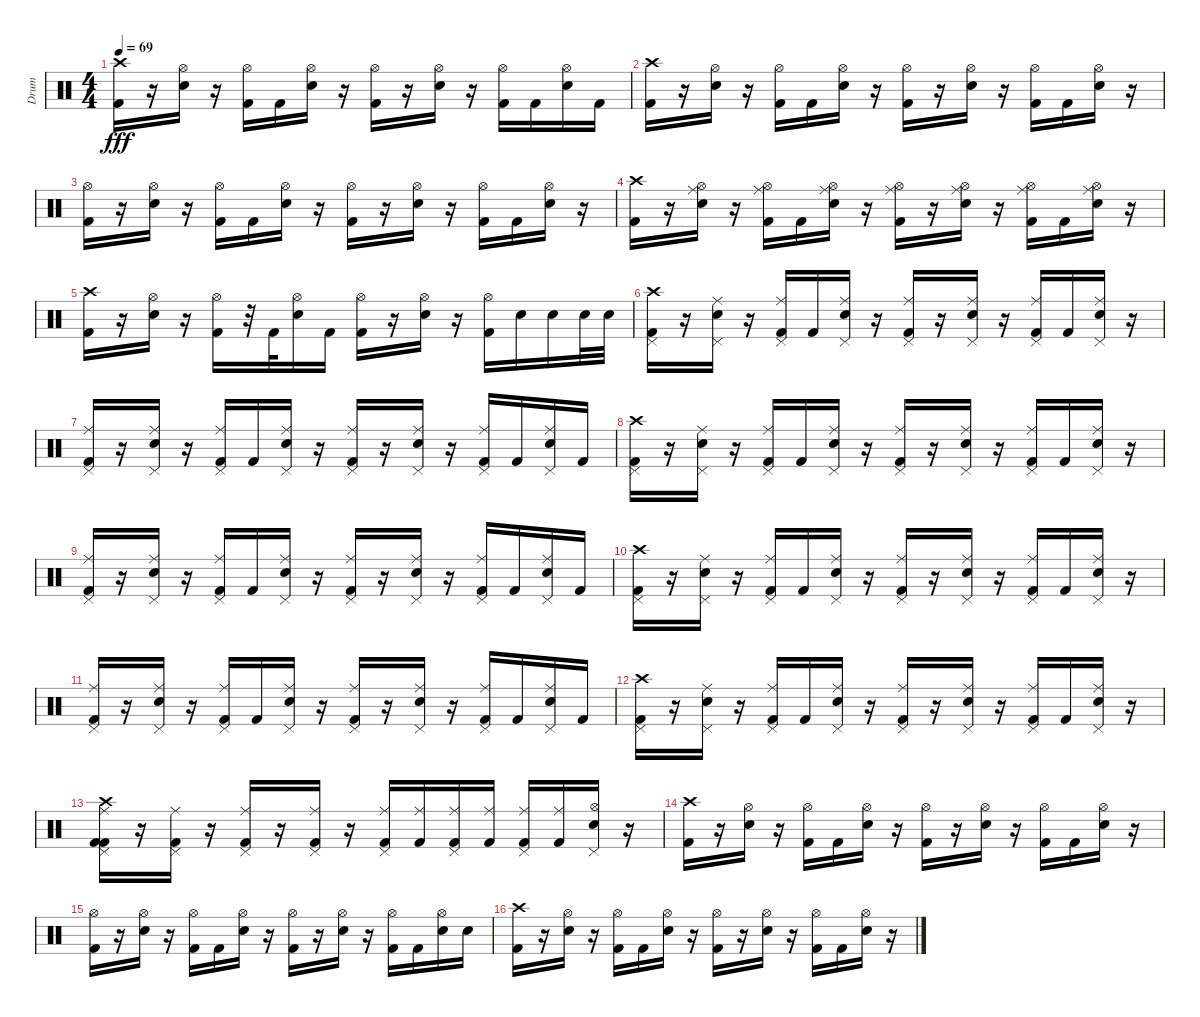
\track ("Drum" "Drum") {instrument percussion}
\staff {score}
\articulation defaults
\ts (4 4)
\tempo 69
\clef neutral
\ks c
("Crash high (hit)" "Kick (hit) 2").16{dy fff} r.16 ("Electric Snare (hit)" "Hi-Hat (open)").16 r.16 ("Kick (hit) 2" "Hi-Hat (open)").16 "Kick (hit) 2".16 ("Electric Snare (hit)" "Hi-Hat (open)").16 r.16 ("Hi-Hat (open)" "Kick (hit) 2").16 r.16 ("Hi-Hat (open)" "Electric Snare (hit)").16 r.16 ("Hi-Hat (open)" "Kick (hit) 2").16 "Kick (hit) 2".16 ("Hi-Hat (open)" "Electric Snare (hit)").16 "Kick (hit) 2".16 |
("Crash high (hit)" "Kick (hit) 2").16 r.16 ("Electric Snare (hit)" "Hi-Hat (open)").16 r.16 ("Kick (hit) 2" "Hi-Hat (open)").16 "Kick (hit) 2".16 ("Electric Snare (hit)" "Hi-Hat (open)").16 r.16 ("Kick (hit) 2" "Hi-Hat (open)").16 r.16 ("Hi-Hat (open)" "Electric Snare (hit)").16 r.16 ("Kick (hit) 2" "Hi-Hat (open)").16 "Kick (hit) 2".16 ("Hi-Hat (open)" "Electric Snare (hit)").16 r.16 |
("Hi-Hat (open)" "Kick (hit) 2").16 r.16 ("Electric Snare (hit)" "Hi-Hat (open)").16 r.16 ("Kick (hit) 2" "Hi-Hat (open)").16 "Kick (hit) 2".16 ("Hi-Hat (open)" "Electric Snare (hit)").16 r.16 ("Hi-Hat (open)" "Kick (hit) 2").16 r.16 ("Electric Snare (hit)" "Hi-Hat (open)").16 r.16 ("Hi-Hat (open)" "Kick (hit) 2").16 "Kick (hit) 2".16 ("Electric Snare (hit)" "Hi-Hat (open)").16 r.16 |
("Crash high (hit)" "Kick (hit) 2").16 r.16 ("Ride (middle)" "Hi-Hat (open)" "Electric Snare (hit)").16 r.16 ("Kick (hit) 2" "Ride (middle)" "Hi-Hat (open)").16 "Kick (hit) 2".16 ("Electric Snare (hit)" "Hi-Hat (open)" "Ride (middle)").16 r.16 ("Kick (hit) 2" "Hi-Hat (open)" "Ride (middle)").16 r.16 ("Electric Snare (hit)" "Ride (middle)" "Hi-Hat (open)").16 r.16 ("Kick (hit) 2" "Ride (middle)" "Hi-Hat (open)").16 "Kick (hit) 2".16 ("Electric Snare (hit)" "Ride (middle)" "Hi-Hat (open)").16 r.16 |
("Crash high (hit)" "Kick (hit) 2").16 r.16 ("Electric Snare (hit)" "Hi-Hat (open)").16 r.16 ("Kick (hit) 2" "Hi-Hat (open)").16 r.32 "Kick (hit) 2".32 ("Hi-Hat (open)" "Electric Snare (hit)").16 "Kick (hit) 2".16 ("Hi-Hat (open)" "Kick (hit) 2").16 r.16 ("Electric Snare (hit)" "Hi-Hat (open)").16 r.16 ("Kick (hit) 2" "Hi-Hat (open)").16 "Electric Snare (hit)".16 "Electric Snare (hit)".16 "Electric Snare (hit)".32 "Electric Snare (hit)".32 |
("Kick (hit) 2" "Crash high (hit)" "Pedal Hi-Hat (hit)").16 r.16 ("Ride (middle)" "Electric Snare (hit)" "Pedal Hi-Hat (hit)").16 r.16 ("Kick (hit) 2" "Ride (middle)" "Pedal Hi-Hat (hit)").16 "Kick (hit) 2".16 ("Electric Snare (hit)" "Ride (middle)" "Pedal Hi-Hat (hit)").16 r.16 ("Kick (hit) 2" "Ride (middle)" "Pedal Hi-Hat (hit)").16 r.16 ("Electric Snare (hit)" "Ride (middle)" "Pedal Hi-Hat (hit)").16 r.16 ("Kick (hit) 2" "Ride (middle)" "Pedal Hi-Hat (hit)").16 "Kick (hit) 2".16 ("Ride (middle)" "Electric Snare (hit)" "Pedal Hi-Hat (hit)").16 r.16 |
("Ride (middle)" "Kick (hit) 2" "Pedal Hi-Hat (hit)").16 r.16 ("Electric Snare (hit)" "Ride (middle)" "Pedal Hi-Hat (hit)").16 r.16 ("Kick (hit) 2" "Ride (middle)" "Pedal Hi-Hat (hit)").16 "Kick (hit) 2".16 ("Electric Snare (hit)" "Ride (middle)" "Pedal Hi-Hat (hit)").16 r.16 ("Kick (hit) 2" "Ride (middle)" "Pedal Hi-Hat (hit)").16 r.16 ("Electric Snare (hit)" "Ride (middle)" "Pedal Hi-Hat (hit)").16 r.16 ("Kick (hit) 2" "Ride (middle)" "Pedal Hi-Hat (hit)").16 "Kick (hit) 2".16 ("Electric Snare (hit)" "Ride (middle)" "Pedal Hi-Hat (hit)").16 "Kick (hit) 2".16 |
("Crash high (hit)" "Kick (hit) 2" "Pedal Hi-Hat (hit)").16 r.16 ("Electric Snare (hit)" "Ride (middle)" "Pedal Hi-Hat (hit)").16 r.16 ("Kick (hit) 2" "Ride (middle)" "Pedal Hi-Hat (hit)").16 "Kick (hit) 2".16 ("Electric Snare (hit)" "Ride (middle)" "Pedal Hi-Hat (hit)").16 r.16 ("Kick (hit) 2" "Ride (middle)" "Pedal Hi-Hat (hit)").16 r.16 ("Electric Snare (hit)" "Ride (middle)" "Pedal Hi-Hat (hit)").16 r.16 ("Kick (hit) 2" "Ride (middle)" "Pedal Hi-Hat (hit)").16 "Kick (hit) 2".16 ("Electric Snare (hit)" "Ride (middle)" "Pedal Hi-Hat (hit)").16 r.16 |
("Kick (hit) 2" "Ride (middle)" "Pedal Hi-Hat (hit)").16 r.16 ("Electric Snare (hit)" "Ride (middle)" "Pedal Hi-Hat (hit)").16 r.16 ("Kick (hit) 2" "Ride (middle)" "Pedal Hi-Hat (hit)").16 "Kick (hit) 2".16 ("Electric Snare (hit)" "Ride (middle)" "Pedal Hi-Hat (hit)").16 r.16 ("Kick (hit) 2" "Ride (middle)" "Pedal Hi-Hat (hit)").16 r.16 ("Electric Snare (hit)" "Ride (middle)" "Pedal Hi-Hat (hit)").16 r.16 ("Kick (hit) 2" "Ride (middle)" "Pedal Hi-Hat (hit)").16 "Kick (hit) 2".16 ("Electric Snare (hit)" "Ride (middle)" "Pedal Hi-Hat (hit)").16 "Kick (hit) 2".16 |
("Crash high (hit)" "Kick (hit) 2" "Pedal Hi-Hat (hit)").16 r.16 ("Electric Snare (hit)" "Ride (middle)" "Pedal Hi-Hat (hit)").16 r.16 ("Kick (hit) 2" "Ride (middle)" "Pedal Hi-Hat (hit)").16 "Kick (hit) 2".16 ("Electric Snare (hit)" "Ride (middle)" "Pedal Hi-Hat (hit)").16 r.16 ("Kick (hit) 2" "Ride (middle)" "Pedal Hi-Hat (hit)").16 r.16 ("Electric Snare (hit)" "Ride (middle)" "Pedal Hi-Hat (hit)").16 r.16 ("Kick (hit) 2" "Ride (middle)" "Pedal Hi-Hat (hit)").16 "Kick (hit) 2".16 ("Electric Snare (hit)" "Ride (middle)" "Pedal Hi-Hat (hit)").16 r.16 |
("Kick (hit) 2" "Ride (middle)" "Pedal Hi-Hat (hit)").16 r.16 ("Electric Snare (hit)" "Ride (middle)" "Pedal Hi-Hat (hit)").16 r.16 ("Kick (hit) 2" "Ride (middle)" "Pedal Hi-Hat (hit)").16 "Kick (hit) 2".16 ("Ride (middle)" "Electric Snare (hit)" "Pedal Hi-Hat (hit)").16 r.16 ("Kick (hit) 2" "Ride (middle)" "Pedal Hi-Hat (hit)").16 r.16 ("Electric Snare (hit)" "Ride (middle)" "Pedal Hi-Hat (hit)").16 r.16 ("Kick (hit) 2" "Ride (middle)" "Pedal Hi-Hat (hit)").16 "Kick (hit) 2".16 ("Ride (middle)" "Electric Snare (hit)" "Pedal Hi-Hat (hit)").16 "Kick (hit) 2".16 |
("Crash high (hit)" "Kick (hit) 2" "Pedal Hi-Hat (hit)").16 r.16 ("Electric Snare (hit)" "Ride (middle)" "Pedal Hi-Hat (hit)").16 r.16 ("Kick (hit) 2" "Ride (middle)" "Pedal Hi-Hat (hit)").16 "Kick (hit) 2".16 ("Electric Snare (hit)" "Ride (middle)" "Pedal Hi-Hat (hit)").16 r.16 ("Kick (hit) 2" "Ride (middle)" "Pedal Hi-Hat (hit)").16 r.16 ("Electric Snare (hit)" "Ride (middle)" "Pedal Hi-Hat (hit)").16 r.16 ("Kick (hit) 2" "Ride (middle)" "Pedal Hi-Hat (hit)").16 "Kick (hit) 2".16 ("Electric Snare (hit)" "Ride (middle)" "Pedal Hi-Hat (hit)").16 r.16 |
("Kick (hit) 2" "Crash high (hit)" "Pedal Hi-Hat (hit)" "Kick (hit) 2" "Ride (middle)").16 r.16 ("Pedal Hi-Hat (hit)" "Ride (middle)" "Kick (hit) 2").16 r.16 ("Pedal Hi-Hat (hit)" "Kick (hit) 2" "Ride (middle)").16 r.16 ("Pedal Hi-Hat (hit)" "Ride (middle)" "Kick (hit) 2").16 r.16 ("Pedal Hi-Hat (hit)" "Kick (hit) 2" "Ride (middle)").16 ("Ride (middle)" "Kick (hit) 2").16 ("Pedal Hi-Hat (hit)" "Ride (middle)" "Kick (hit) 2").16 ("Ride (middle)" "Kick (hit) 2").16 ("Pedal Hi-Hat (hit)" "Ride (middle)" "Kick (hit) 2").16 ("Ride (middle)" "Kick (hit) 2").16 ("Pedal Hi-Hat (hit)" "Electric Snare (hit)" "Hi-Hat (open)").16 r.16 |
("Crash high (hit)" "Kick (hit) 2").16 r.16 ("Hi-Hat (open)" "Electric Snare (hit)").16 r.16 ("Kick (hit) 2" "Hi-Hat (open)").16 "Kick (hit) 2".16 ("Electric Snare (hit)" "Hi-Hat (open)").16 r.16 ("Hi-Hat (open)" "Kick (hit) 2").16 r.16 ("Hi-Hat (open)" "Electric Snare (hit)").16 r.16 ("Kick (hit) 2" "Hi-Hat (open)").16 "Kick (hit) 2".16 ("Hi-Hat (open)" "Electric Snare (hit)").16 r.16 |
("Hi-Hat (open)" "Kick (hit) 2").16 r.16 ("Electric Snare (hit)" "Hi-Hat (open)").16 r.16 ("Kick (hit) 2" "Hi-Hat (open)").16 "Kick (hit) 2".16 ("Electric Snare (hit)" "Hi-Hat (open)").16 r.16 ("Hi-Hat (open)" "Kick (hit) 2").16 r.16 ("Electric Snare (hit)" "Hi-Hat (open)").16 r.16 ("Kick (hit) 2" "Hi-Hat (open)").16 "Kick (hit) 2".16 ("Electric Snare (hit)" "Hi-Hat (open)").16 "Electric Snare (hit)".16 |
("Crash high (hit)" "Kick (hit) 2").16 r.16 ("Hi-Hat (open)" "Electric Snare (hit)").16 r.16 ("Kick (hit) 2" "Hi-Hat (open)").16 "Kick (hit) 2".16 ("Hi-Hat (open)" "Electric Snare (hit)").16 r.16 ("Hi-Hat (open)" "Kick (hit) 2").16 r.16 ("Electric Snare (hit)" "Hi-Hat (open)").16 r.16 ("Kick (hit) 2" "Hi-Hat (open)").16 "Kick (hit) 2".16 ("Electric Snare (hit)" "Hi-Hat (open)").16 r.16
